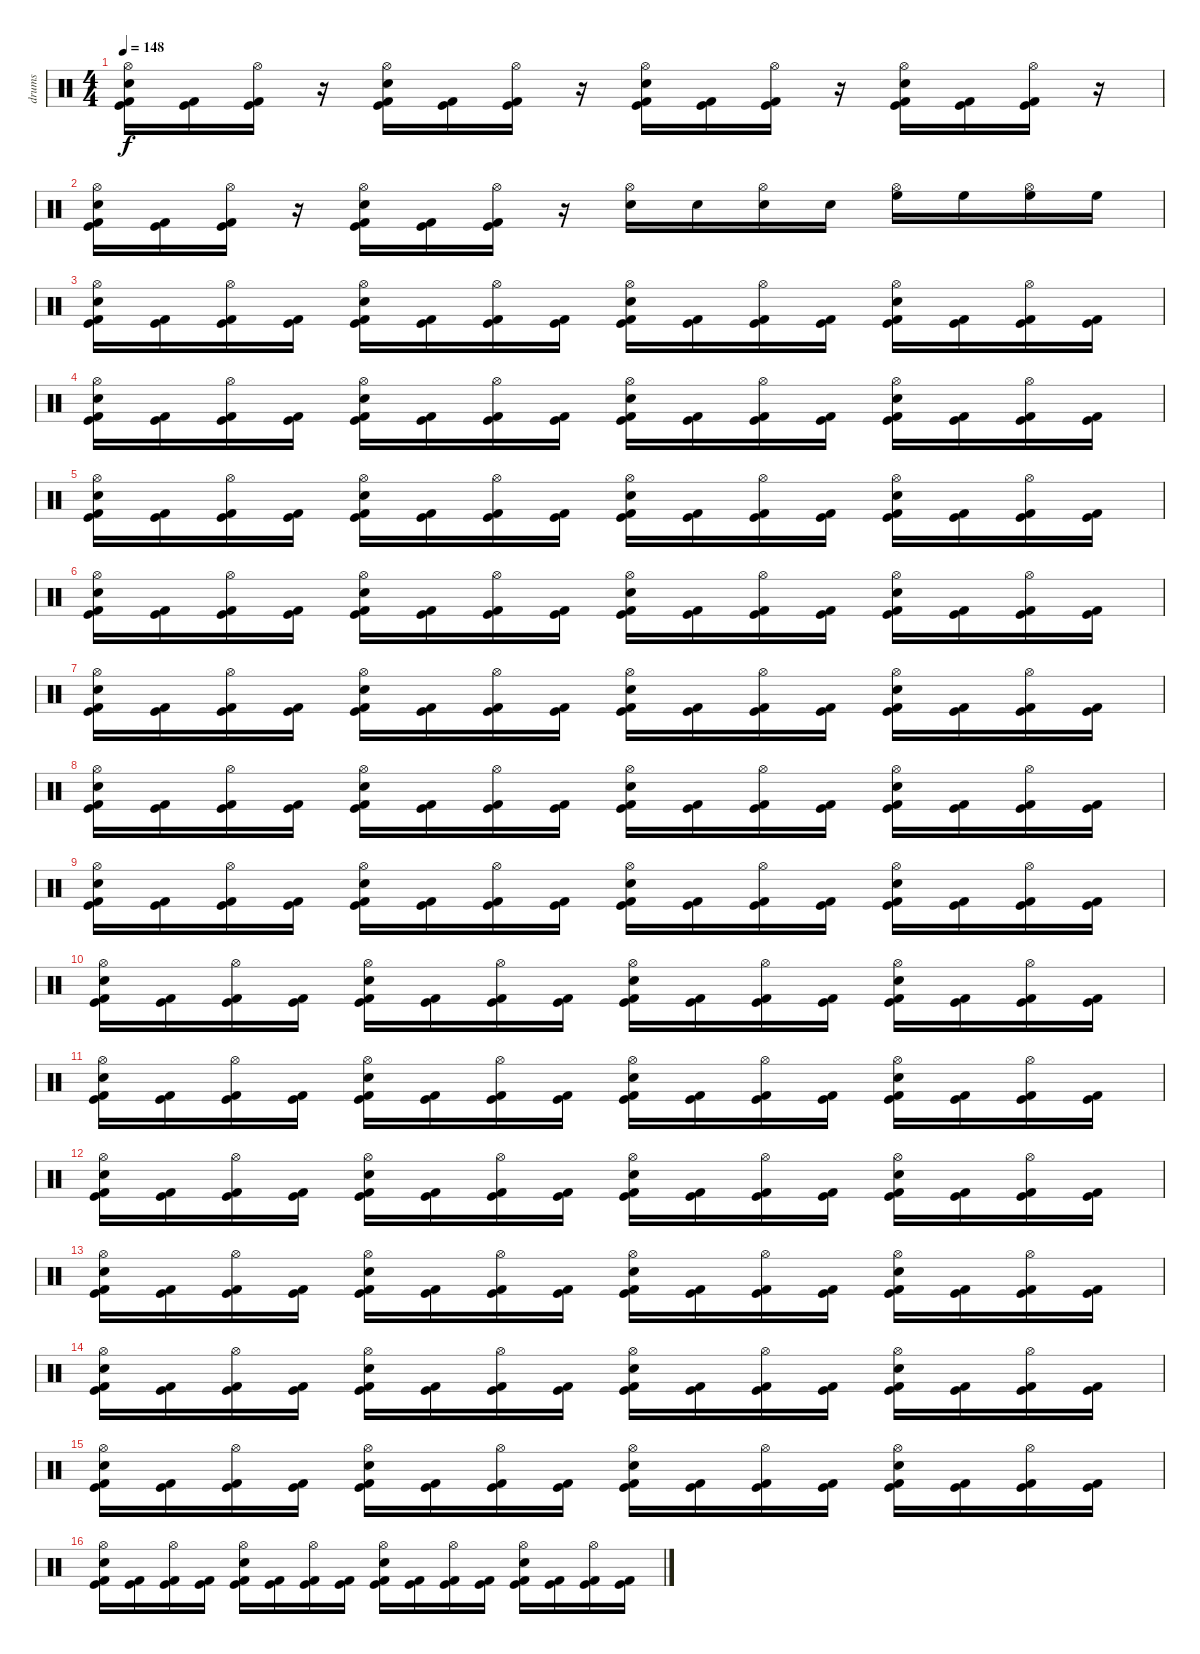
\track ("drums" "drums") {instrument percussion}
\staff {score}
\articulation defaults
\ts (4 4)
\tempo 148
\clef neutral
\ks c
("Kick (hit)" "Kick (hit) 2" "Snare (hit) 2" "Hi-Hat (open)").16{dy f} ("Kick (hit)" "Kick (hit) 2").16 ("Kick (hit)" "Kick (hit) 2" "Hi-Hat (open)").16 r.16 ("Kick (hit)" "Kick (hit) 2" "Snare (hit) 2" "Hi-Hat (open)").16 ("Kick (hit)" "Kick (hit) 2").16 ("Kick (hit)" "Kick (hit) 2" "Hi-Hat (open)").16 r.16 ("Kick (hit)" "Kick (hit) 2" "Snare (hit) 2" "Hi-Hat (open)").16 ("Kick (hit)" "Kick (hit) 2").16 ("Kick (hit)" "Kick (hit) 2" "Hi-Hat (open)").16 r.16 ("Kick (hit)" "Kick (hit) 2" "Snare (hit) 2" "Hi-Hat (open)").16 ("Kick (hit)" "Kick (hit) 2").16 ("Kick (hit)" "Kick (hit) 2" "Hi-Hat (open)").16 r.16 |
("Kick (hit)" "Kick (hit) 2" "Snare (hit) 2" "Hi-Hat (open)").16 ("Kick (hit)" "Kick (hit) 2").16 ("Kick (hit)" "Kick (hit) 2" "Hi-Hat (open)").16 r.16 ("Kick (hit)" "Kick (hit) 2" "Snare (hit) 2" "Hi-Hat (open)").16 ("Kick (hit)" "Kick (hit) 2").16 ("Kick (hit)" "Kick (hit) 2" "Hi-Hat (open)").16 r.16 ("Snare (hit) 2" "Hi-Hat (open)").16 "Snare (hit) 2".16 ("Snare (hit) 2" "Hi-Hat (open)").16 "Snare (hit) 2".16 ("High Floor Tom (hit)" "Hi-Hat (open)").16 "High Floor Tom (hit)".16 ("High Floor Tom (hit)" "Hi-Hat (open)").16 "High Floor Tom (hit)".16 |
("Kick (hit)" "Kick (hit) 2" "Snare (hit) 2" "Hi-Hat (open)").16 ("Kick (hit)" "Kick (hit) 2").16 ("Kick (hit)" "Kick (hit) 2" "Hi-Hat (open)").16 ("Kick (hit)" "Kick (hit) 2").16 ("Kick (hit)" "Kick (hit) 2" "Snare (hit) 2" "Hi-Hat (open)").16 ("Kick (hit)" "Kick (hit) 2").16 ("Kick (hit)" "Kick (hit) 2" "Hi-Hat (open)").16 ("Kick (hit)" "Kick (hit) 2").16 ("Kick (hit)" "Kick (hit) 2" "Snare (hit) 2" "Hi-Hat (open)").16 ("Kick (hit)" "Kick (hit) 2").16 ("Kick (hit)" "Kick (hit) 2" "Hi-Hat (open)").16 ("Kick (hit)" "Kick (hit) 2").16 ("Kick (hit)" "Kick (hit) 2" "Snare (hit) 2" "Hi-Hat (open)").16 ("Kick (hit)" "Kick (hit) 2").16 ("Kick (hit)" "Kick (hit) 2" "Hi-Hat (open)").16 ("Kick (hit)" "Kick (hit) 2").16 |
("Kick (hit)" "Kick (hit) 2" "Snare (hit) 2" "Hi-Hat (open)").16 ("Kick (hit)" "Kick (hit) 2").16 ("Kick (hit)" "Kick (hit) 2" "Hi-Hat (open)").16 ("Kick (hit)" "Kick (hit) 2").16 ("Kick (hit)" "Kick (hit) 2" "Snare (hit) 2" "Hi-Hat (open)").16 ("Kick (hit)" "Kick (hit) 2").16 ("Kick (hit)" "Kick (hit) 2" "Hi-Hat (open)").16 ("Kick (hit)" "Kick (hit) 2").16 ("Kick (hit)" "Kick (hit) 2" "Snare (hit) 2" "Hi-Hat (open)").16 ("Kick (hit)" "Kick (hit) 2").16 ("Kick (hit)" "Kick (hit) 2" "Hi-Hat (open)").16 ("Kick (hit)" "Kick (hit) 2").16 ("Kick (hit)" "Kick (hit) 2" "Snare (hit) 2" "Hi-Hat (open)").16 ("Kick (hit)" "Kick (hit) 2").16 ("Kick (hit)" "Kick (hit) 2" "Hi-Hat (open)").16 ("Kick (hit)" "Kick (hit) 2").16 |
("Kick (hit)" "Kick (hit) 2" "Snare (hit) 2" "Hi-Hat (open)").16 ("Kick (hit)" "Kick (hit) 2").16 ("Kick (hit)" "Kick (hit) 2" "Hi-Hat (open)").16 ("Kick (hit)" "Kick (hit) 2").16 ("Kick (hit)" "Kick (hit) 2" "Snare (hit) 2" "Hi-Hat (open)").16 ("Kick (hit)" "Kick (hit) 2").16 ("Kick (hit)" "Kick (hit) 2" "Hi-Hat (open)").16 ("Kick (hit)" "Kick (hit) 2").16 ("Kick (hit)" "Kick (hit) 2" "Snare (hit) 2" "Hi-Hat (open)").16 ("Kick (hit)" "Kick (hit) 2").16 ("Kick (hit)" "Kick (hit) 2" "Hi-Hat (open)").16 ("Kick (hit)" "Kick (hit) 2").16 ("Kick (hit)" "Kick (hit) 2" "Snare (hit) 2" "Hi-Hat (open)").16 ("Kick (hit)" "Kick (hit) 2").16 ("Kick (hit)" "Kick (hit) 2" "Hi-Hat (open)").16 ("Kick (hit)" "Kick (hit) 2").16 |
("Kick (hit)" "Kick (hit) 2" "Snare (hit) 2" "Hi-Hat (open)").16 ("Kick (hit)" "Kick (hit) 2").16 ("Kick (hit)" "Kick (hit) 2" "Hi-Hat (open)").16 ("Kick (hit)" "Kick (hit) 2").16 ("Kick (hit)" "Kick (hit) 2" "Snare (hit) 2" "Hi-Hat (open)").16 ("Kick (hit)" "Kick (hit) 2").16 ("Kick (hit)" "Kick (hit) 2" "Hi-Hat (open)").16 ("Kick (hit)" "Kick (hit) 2").16 ("Kick (hit)" "Kick (hit) 2" "Snare (hit) 2" "Hi-Hat (open)").16 ("Kick (hit)" "Kick (hit) 2").16 ("Kick (hit)" "Kick (hit) 2" "Hi-Hat (open)").16 ("Kick (hit)" "Kick (hit) 2").16 ("Kick (hit)" "Kick (hit) 2" "Snare (hit) 2" "Hi-Hat (open)").16 ("Kick (hit)" "Kick (hit) 2").16 ("Kick (hit)" "Kick (hit) 2" "Hi-Hat (open)").16 ("Kick (hit)" "Kick (hit) 2").16 |
("Kick (hit)" "Kick (hit) 2" "Snare (hit) 2" "Hi-Hat (open)").16 ("Kick (hit)" "Kick (hit) 2").16 ("Kick (hit)" "Kick (hit) 2" "Hi-Hat (open)").16 ("Kick (hit)" "Kick (hit) 2").16 ("Kick (hit)" "Kick (hit) 2" "Snare (hit) 2" "Hi-Hat (open)").16 ("Kick (hit)" "Kick (hit) 2").16 ("Kick (hit)" "Kick (hit) 2" "Hi-Hat (open)").16 ("Kick (hit)" "Kick (hit) 2").16 ("Kick (hit)" "Kick (hit) 2" "Snare (hit) 2" "Hi-Hat (open)").16 ("Kick (hit)" "Kick (hit) 2").16 ("Kick (hit)" "Kick (hit) 2" "Hi-Hat (open)").16 ("Kick (hit)" "Kick (hit) 2").16 ("Kick (hit)" "Kick (hit) 2" "Snare (hit) 2" "Hi-Hat (open)").16 ("Kick (hit)" "Kick (hit) 2").16 ("Kick (hit)" "Kick (hit) 2" "Hi-Hat (open)").16 ("Kick (hit)" "Kick (hit) 2").16 |
("Kick (hit)" "Kick (hit) 2" "Snare (hit) 2" "Hi-Hat (open)").16 ("Kick (hit)" "Kick (hit) 2").16 ("Kick (hit)" "Kick (hit) 2" "Hi-Hat (open)").16 ("Kick (hit)" "Kick (hit) 2").16 ("Kick (hit)" "Kick (hit) 2" "Snare (hit) 2" "Hi-Hat (open)").16 ("Kick (hit)" "Kick (hit) 2").16 ("Kick (hit)" "Kick (hit) 2" "Hi-Hat (open)").16 ("Kick (hit)" "Kick (hit) 2").16 ("Kick (hit)" "Kick (hit) 2" "Snare (hit) 2" "Hi-Hat (open)").16 ("Kick (hit)" "Kick (hit) 2").16 ("Kick (hit)" "Kick (hit) 2" "Hi-Hat (open)").16 ("Kick (hit)" "Kick (hit) 2").16 ("Kick (hit)" "Kick (hit) 2" "Snare (hit) 2" "Hi-Hat (open)").16 ("Kick (hit)" "Kick (hit) 2").16 ("Kick (hit)" "Kick (hit) 2" "Hi-Hat (open)").16 ("Kick (hit)" "Kick (hit) 2").16 |
("Kick (hit)" "Kick (hit) 2" "Snare (hit) 2" "Hi-Hat (open)").16 ("Kick (hit)" "Kick (hit) 2").16 ("Kick (hit)" "Kick (hit) 2" "Hi-Hat (open)").16 ("Kick (hit)" "Kick (hit) 2").16 ("Kick (hit)" "Kick (hit) 2" "Snare (hit) 2" "Hi-Hat (open)").16 ("Kick (hit)" "Kick (hit) 2").16 ("Kick (hit)" "Kick (hit) 2" "Hi-Hat (open)").16 ("Kick (hit)" "Kick (hit) 2").16 ("Kick (hit)" "Kick (hit) 2" "Snare (hit) 2" "Hi-Hat (open)").16 ("Kick (hit)" "Kick (hit) 2").16 ("Kick (hit)" "Kick (hit) 2" "Hi-Hat (open)").16 ("Kick (hit)" "Kick (hit) 2").16 ("Kick (hit)" "Kick (hit) 2" "Snare (hit) 2" "Hi-Hat (open)").16 ("Kick (hit)" "Kick (hit) 2").16 ("Kick (hit)" "Kick (hit) 2" "Hi-Hat (open)").16 ("Kick (hit)" "Kick (hit) 2").16 |
("Kick (hit)" "Kick (hit) 2" "Snare (hit) 2" "Hi-Hat (open)").16 ("Kick (hit)" "Kick (hit) 2").16 ("Kick (hit)" "Kick (hit) 2" "Hi-Hat (open)").16 ("Kick (hit)" "Kick (hit) 2").16 ("Kick (hit)" "Kick (hit) 2" "Snare (hit) 2" "Hi-Hat (open)").16 ("Kick (hit)" "Kick (hit) 2").16 ("Kick (hit)" "Kick (hit) 2" "Hi-Hat (open)").16 ("Kick (hit)" "Kick (hit) 2").16 ("Kick (hit)" "Kick (hit) 2" "Snare (hit) 2" "Hi-Hat (open)").16 ("Kick (hit)" "Kick (hit) 2").16 ("Kick (hit)" "Kick (hit) 2" "Hi-Hat (open)").16 ("Kick (hit)" "Kick (hit) 2").16 ("Kick (hit)" "Kick (hit) 2" "Snare (hit) 2" "Hi-Hat (open)").16 ("Kick (hit)" "Kick (hit) 2").16 ("Kick (hit)" "Kick (hit) 2" "Hi-Hat (open)").16 ("Kick (hit)" "Kick (hit) 2").16 |
("Kick (hit)" "Kick (hit) 2" "Snare (hit) 2" "Hi-Hat (open)").16 ("Kick (hit)" "Kick (hit) 2").16 ("Kick (hit)" "Kick (hit) 2" "Hi-Hat (open)").16 ("Kick (hit)" "Kick (hit) 2").16 ("Kick (hit)" "Kick (hit) 2" "Snare (hit) 2" "Hi-Hat (open)").16 ("Kick (hit)" "Kick (hit) 2").16 ("Kick (hit)" "Kick (hit) 2" "Hi-Hat (open)").16 ("Kick (hit)" "Kick (hit) 2").16 ("Kick (hit)" "Kick (hit) 2" "Snare (hit) 2" "Hi-Hat (open)").16 ("Kick (hit)" "Kick (hit) 2").16 ("Kick (hit)" "Kick (hit) 2" "Hi-Hat (open)").16 ("Kick (hit)" "Kick (hit) 2").16 ("Kick (hit)" "Kick (hit) 2" "Snare (hit) 2" "Hi-Hat (open)").16 ("Kick (hit)" "Kick (hit) 2").16 ("Kick (hit)" "Kick (hit) 2" "Hi-Hat (open)").16 ("Kick (hit)" "Kick (hit) 2").16 |
("Kick (hit)" "Kick (hit) 2" "Snare (hit) 2" "Hi-Hat (open)").16 ("Kick (hit)" "Kick (hit) 2").16 ("Kick (hit)" "Kick (hit) 2" "Hi-Hat (open)").16 ("Kick (hit)" "Kick (hit) 2").16 ("Kick (hit)" "Kick (hit) 2" "Snare (hit) 2" "Hi-Hat (open)").16 ("Kick (hit)" "Kick (hit) 2").16 ("Kick (hit)" "Kick (hit) 2" "Hi-Hat (open)").16 ("Kick (hit)" "Kick (hit) 2").16 ("Kick (hit)" "Kick (hit) 2" "Snare (hit) 2" "Hi-Hat (open)").16 ("Kick (hit)" "Kick (hit) 2").16 ("Kick (hit)" "Kick (hit) 2" "Hi-Hat (open)").16 ("Kick (hit)" "Kick (hit) 2").16 ("Kick (hit)" "Kick (hit) 2" "Snare (hit) 2" "Hi-Hat (open)").16 ("Kick (hit)" "Kick (hit) 2").16 ("Kick (hit)" "Kick (hit) 2" "Hi-Hat (open)").16 ("Kick (hit)" "Kick (hit) 2").16 |
("Kick (hit)" "Kick (hit) 2" "Snare (hit) 2" "Hi-Hat (open)").16 ("Kick (hit)" "Kick (hit) 2").16 ("Kick (hit)" "Kick (hit) 2" "Hi-Hat (open)").16 ("Kick (hit)" "Kick (hit) 2").16 ("Kick (hit)" "Kick (hit) 2" "Snare (hit) 2" "Hi-Hat (open)").16 ("Kick (hit)" "Kick (hit) 2").16 ("Kick (hit)" "Kick (hit) 2" "Hi-Hat (open)").16 ("Kick (hit)" "Kick (hit) 2").16 ("Kick (hit)" "Kick (hit) 2" "Snare (hit) 2" "Hi-Hat (open)").16 ("Kick (hit)" "Kick (hit) 2").16 ("Kick (hit)" "Kick (hit) 2" "Hi-Hat (open)").16 ("Kick (hit)" "Kick (hit) 2").16 ("Kick (hit)" "Kick (hit) 2" "Snare (hit) 2" "Hi-Hat (open)").16 ("Kick (hit)" "Kick (hit) 2").16 ("Kick (hit)" "Kick (hit) 2" "Hi-Hat (open)").16 ("Kick (hit)" "Kick (hit) 2").16 |
("Kick (hit)" "Kick (hit) 2" "Snare (hit) 2" "Hi-Hat (open)").16 ("Kick (hit)" "Kick (hit) 2").16 ("Kick (hit)" "Kick (hit) 2" "Hi-Hat (open)").16 ("Kick (hit)" "Kick (hit) 2").16 ("Kick (hit)" "Kick (hit) 2" "Snare (hit) 2" "Hi-Hat (open)").16 ("Kick (hit)" "Kick (hit) 2").16 ("Kick (hit)" "Kick (hit) 2" "Hi-Hat (open)").16 ("Kick (hit)" "Kick (hit) 2").16 ("Kick (hit)" "Kick (hit) 2" "Snare (hit) 2" "Hi-Hat (open)").16 ("Kick (hit)" "Kick (hit) 2").16 ("Kick (hit)" "Kick (hit) 2" "Hi-Hat (open)").16 ("Kick (hit)" "Kick (hit) 2").16 ("Kick (hit)" "Kick (hit) 2" "Snare (hit) 2" "Hi-Hat (open)").16 ("Kick (hit)" "Kick (hit) 2").16 ("Kick (hit)" "Kick (hit) 2" "Hi-Hat (open)").16 ("Kick (hit)" "Kick (hit) 2").16 |
("Kick (hit)" "Kick (hit) 2" "Snare (hit) 2" "Hi-Hat (open)").16 ("Kick (hit)" "Kick (hit) 2").16 ("Kick (hit)" "Kick (hit) 2" "Hi-Hat (open)").16 ("Kick (hit)" "Kick (hit) 2").16 ("Kick (hit)" "Kick (hit) 2" "Snare (hit) 2" "Hi-Hat (open)").16 ("Kick (hit)" "Kick (hit) 2").16 ("Kick (hit)" "Kick (hit) 2" "Hi-Hat (open)").16 ("Kick (hit)" "Kick (hit) 2").16 ("Kick (hit)" "Kick (hit) 2" "Snare (hit) 2" "Hi-Hat (open)").16 ("Kick (hit)" "Kick (hit) 2").16 ("Kick (hit)" "Kick (hit) 2" "Hi-Hat (open)").16 ("Kick (hit)" "Kick (hit) 2").16 ("Kick (hit)" "Kick (hit) 2" "Snare (hit) 2" "Hi-Hat (open)").16 ("Kick (hit)" "Kick (hit) 2").16 ("Kick (hit)" "Kick (hit) 2" "Hi-Hat (open)").16 ("Kick (hit)" "Kick (hit) 2").16 |
("Kick (hit)" "Kick (hit) 2" "Snare (hit) 2" "Hi-Hat (open)").16 ("Kick (hit)" "Kick (hit) 2").16 ("Kick (hit)" "Kick (hit) 2" "Hi-Hat (open)").16 ("Kick (hit)" "Kick (hit) 2").16 ("Kick (hit)" "Kick (hit) 2" "Snare (hit) 2" "Hi-Hat (open)").16 ("Kick (hit)" "Kick (hit) 2").16 ("Kick (hit)" "Kick (hit) 2" "Hi-Hat (open)").16 ("Kick (hit)" "Kick (hit) 2").16 ("Kick (hit)" "Kick (hit) 2" "Snare (hit) 2" "Hi-Hat (open)").16 ("Kick (hit)" "Kick (hit) 2").16 ("Kick (hit)" "Kick (hit) 2" "Hi-Hat (open)").16 ("Kick (hit)" "Kick (hit) 2").16 ("Kick (hit)" "Kick (hit) 2" "Snare (hit) 2" "Hi-Hat (open)").16 ("Kick (hit)" "Kick (hit) 2").16 ("Kick (hit)" "Kick (hit) 2" "Hi-Hat (open)").16 ("Kick (hit)" "Kick (hit) 2").16
